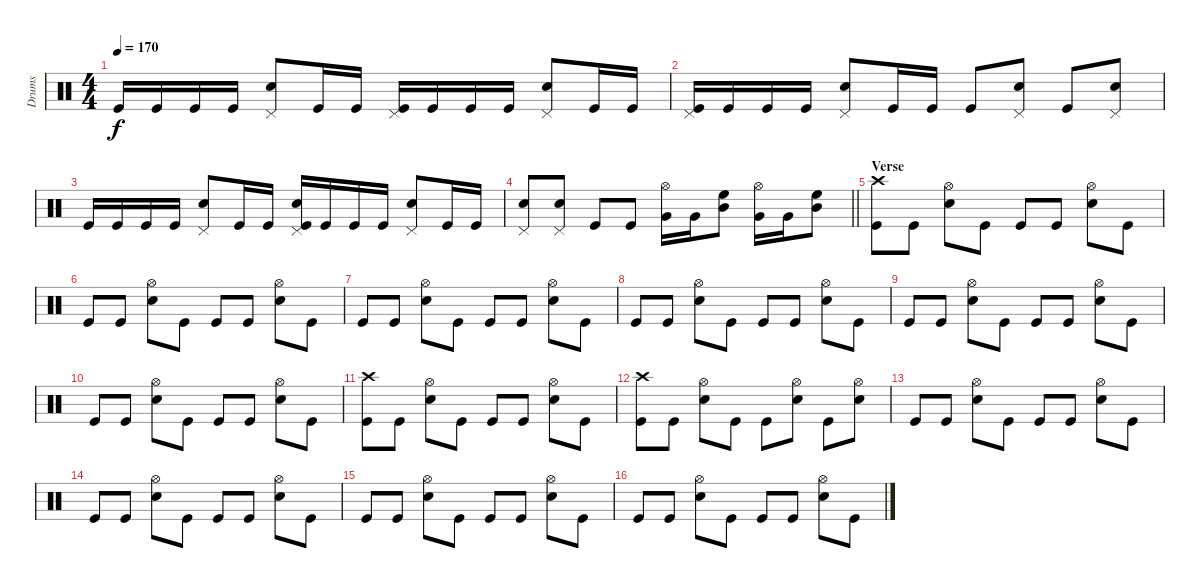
\track ("Drums" "Drums") {instrument percussion}
\staff {score}
\articulation defaults
\ts (4 4)
\tempo 170
\clef neutral
\ks c "Kick (hit)".16{dy f} "Kick (hit)".16 "Kick (hit)".16 "Kick (hit)".16
("Pedal Hi-Hat (hit)" "Snare (hit) 2").8 "Kick (hit)".16 "Kick (hit)".16 ("Pedal Hi-Hat (hit)" "Kick (hit)").16 "Kick (hit)".16 "Kick (hit)".16 "Kick (hit)".16 ("Pedal Hi-Hat (hit)" "Snare (hit) 2").8 "Kick (hit)".16 "Kick (hit)".16 |
("Pedal Hi-Hat (hit)" "Kick (hit)").16 "Kick (hit)".16 "Kick (hit)".16 "Kick (hit)".16 ("Pedal Hi-Hat (hit)" "Snare (hit) 2").8 "Kick (hit)".16 "Kick (hit)".16 "Kick (hit)".8 ("Pedal Hi-Hat (hit)" "Snare (hit) 2").8 "Kick (hit)".8 ("Pedal Hi-Hat (hit)" "Snare (hit) 2").8 |
"Kick (hit)".16 "Kick (hit)".16 "Kick (hit)".16 "Kick (hit)".16 ("Pedal Hi-Hat (hit)" "Snare (hit) 2").8 "Kick (hit)".16 "Kick (hit)".16 ("Pedal Hi-Hat (hit)" "Snare (hit) 2" "Kick (hit)").16 "Kick (hit)".16 "Kick (hit)".16 "Kick (hit)".16 ("Pedal Hi-Hat (hit)" "Snare (hit) 2").8 "Kick (hit)".16 "Kick (hit)".16 |
\barLineRight lightlight
("Pedal Hi-Hat (hit)" "Snare (hit) 2").8 ("Pedal Hi-Hat (hit)" "Snare (hit) 2").8 "Kick (hit)".8 "Kick (hit)".8 ("Hi-Hat (open)" "Very Low Tom (hit)").16 "Very Low Tom (hit)".16 ("High Floor Tom (hit)" "Mid Tom (hit)").8 ("Hi-Hat (open)" "Very Low Tom (hit)").16 "Very Low Tom (hit)".16 ("High Floor Tom (hit)" "Mid Tom (hit)").8 |
\section ("" "Verse")
("Crash high (hit)" "Kick (hit)").8 "Kick (hit)".8 ("Hi-Hat (open)" "Snare (hit) 2").8 "Kick (hit)".8 "Kick (hit)".8 "Kick (hit)".8 ("Hi-Hat (open)" "Snare (hit) 2").8 "Kick (hit)".8 |
"Kick (hit)".8 "Kick (hit)".8 ("Hi-Hat (open)" "Snare (hit) 2").8 "Kick (hit)".8 "Kick (hit)".8 "Kick (hit)".8 ("Hi-Hat (open)" "Snare (hit) 2").8 "Kick (hit)".8 |
"Kick (hit)".8 "Kick (hit)".8 ("Hi-Hat (open)" "Snare (hit) 2").8 "Kick (hit)".8 "Kick (hit)".8 "Kick (hit)".8 ("Hi-Hat (open)" "Snare (hit) 2").8 "Kick (hit)".8 |
"Kick (hit)".8 "Kick (hit)".8 ("Hi-Hat (open)" "Snare (hit) 2").8 "Kick (hit)".8 "Kick (hit)".8 "Kick (hit)".8 ("Hi-Hat (open)" "Snare (hit) 2").8 "Kick (hit)".8 |
"Kick (hit)".8 "Kick (hit)".8 ("Hi-Hat (open)" "Snare (hit) 2").8 "Kick (hit)".8 "Kick (hit)".8 "Kick (hit)".8 ("Hi-Hat (open)" "Snare (hit) 2").8 "Kick (hit)".8 |
"Kick (hit)".8 "Kick (hit)".8 ("Hi-Hat (open)" "Snare (hit) 2").8 "Kick (hit)".8 "Kick (hit)".8 "Kick (hit)".8 ("Hi-Hat (open)" "Snare (hit) 2").8 "Kick (hit)".8 |
("Crash high (hit)" "Kick (hit)").8 "Kick (hit)".8 ("Hi-Hat (open)" "Snare (hit) 2").8 "Kick (hit)".8 "Kick (hit)".8 "Kick (hit)".8 ("Hi-Hat (open)" "Snare (hit) 2").8 "Kick (hit)".8 |
("Crash high (hit)" "Kick (hit)").8 "Kick (hit)".8 ("Hi-Hat (open)" "Snare (hit) 2").8 "Kick (hit)".8 "Kick (hit)".8 ("Hi-Hat (open)" "Snare (hit) 2").8 "Kick (hit)".8 ("Hi-Hat (open)" "Snare (hit) 2").8 |
"Kick (hit)".8 "Kick (hit)".8 ("Hi-Hat (open)" "Snare (hit) 2").8 "Kick (hit)".8 "Kick (hit)".8 "Kick (hit)".8 ("Hi-Hat (open)" "Snare (hit) 2").8 "Kick (hit)".8 |
"Kick (hit)".8 "Kick (hit)".8 ("Hi-Hat (open)" "Snare (hit) 2").8 "Kick (hit)".8 "Kick (hit)".8 "Kick (hit)".8 ("Hi-Hat (open)" "Snare (hit) 2").8 "Kick (hit)".8 |
"Kick (hit)".8 "Kick (hit)".8 ("Hi-Hat (open)" "Snare (hit) 2").8 "Kick (hit)".8 "Kick (hit)".8 "Kick (hit)".8 ("Hi-Hat (open)" "Snare (hit) 2").8 "Kick (hit)".8 |
"Kick (hit)".8 "Kick (hit)".8 ("Hi-Hat (open)" "Snare (hit) 2").8 "Kick (hit)".8 "Kick (hit)".8 "Kick (hit)".8 ("Hi-Hat (open)" "Snare (hit) 2").8 "Kick (hit)".8
